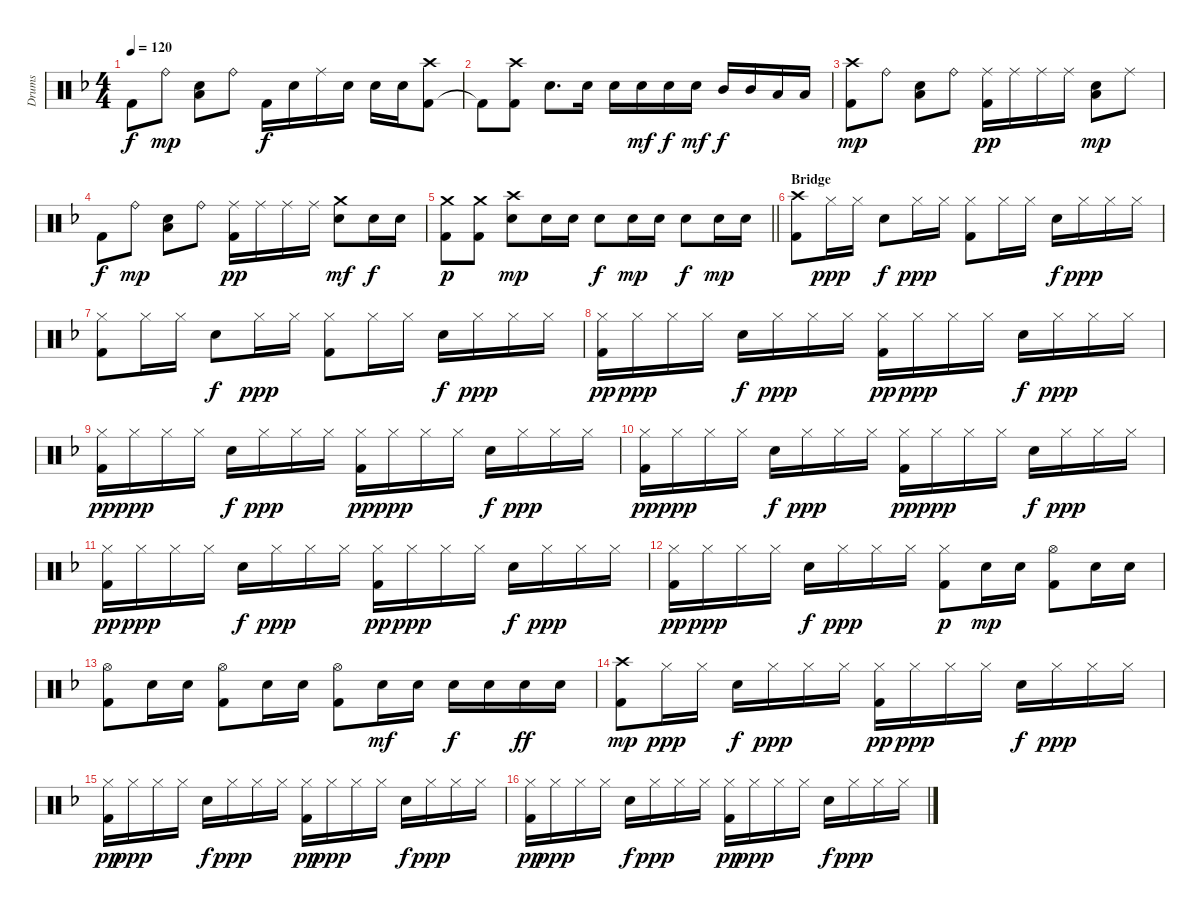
\track ("Drums" "Drums") {instrument percussion}
\staff {score}
\articulation defaults
\ts (4 4)
\tempo 120
\clef neutral
\ks dminor "Kick (hit) 2".8{dy f} "Ride (bell)".8{dy mp}
("Electric Snare (hit)" "Low Tom (hit)").8 "Ride (bell)".8 "Kick (hit) 2".16{dy f} "Electric Snare (hit)".16 "Ride (middle)".16 "Electric Snare (hit)".16 "Electric Snare (hit)".16 "Electric Snare (hit)".16 ("Kick (hit) 2" "Crash high (hit)").8 |
"Kick (hit) 2"{t}.8 ("Kick (hit) 2" "Crash high (hit)").8 "Electric Snare (hit)".8{d} "Electric Snare (hit)".16 "Electric Snare (hit)".16 "Electric Snare (hit)".16{dy mf} "Electric Snare (hit)".16{dy f} "Electric Snare (hit)".16{dy mf} "Mid Tom (hit)".16{dy f} "Mid Tom (hit)".16 "Low Tom (hit)".16 "Low Tom (hit)".16 |
("Kick (hit) 2" "Crash high (hit)").8{dy mp} "Ride (bell)".8 ("Electric Snare (hit)" "Low Tom (hit)").8 "Ride (bell)".8 ("Kick (hit) 2" "Ride (middle)").16{dy pp} "Ride (middle)".16 "Ride (middle)".16 "Ride (middle)".16 ("Electric Snare (hit)" "Low Tom (hit)").8{dy mp} "Ride (middle)".8 |
"Kick (hit) 2".8{dy f} "Ride (bell)".8{dy mp} ("Electric Snare (hit)" "Low Tom (hit)").8 "Ride (bell)".8 ("Kick (hit) 2" "Ride (middle)").16{dy pp} "Ride (middle)".16 "Ride (middle)".16 "Ride (middle)".16 ("Electric Snare (hit)" "Crash medium (hit)").8{dy mf} "Electric Snare (hit)".16{dy f} "Electric Snare (hit)".16 |
\barLineRight lightlight
("Kick (hit) 2" "Crash medium (hit)").8{dy p} ("Kick (hit) 2" "Crash medium (hit)").8 ("Electric Snare (hit)" "Crash high (hit)").8{dy mp} "Electric Snare (hit)".16 "Electric Snare (hit)".16 "Electric Snare (hit)".8{dy f} "Electric Snare (hit)".16{dy mp} "Electric Snare (hit)".16 "Electric Snare (hit)".8{dy f} "Electric Snare (hit)".16{dy mp} "Electric Snare (hit)".16 |
\section ("" "Bridge")
("Kick (hit) 2" "Crash high (hit)").8 "Hi-Hat (closed)".16{dy ppp} "Hi-Hat (closed)".16 "Electric Snare (hit)".8{dy f} "Hi-Hat (closed)".16{dy ppp} "Hi-Hat (closed)".16 ("Hi-Hat (closed)" "Kick (hit) 2").8 "Hi-Hat (closed)".16 "Hi-Hat (closed)".16 "Electric Snare (hit)".16{dy f} "Hi-Hat (closed)".16{dy ppp} "Hi-Hat (closed)".16 "Hi-Hat (closed)".16 |
("Hi-Hat (closed)" "Kick (hit) 2").8 "Hi-Hat (closed)".16 "Hi-Hat (closed)".16 "Electric Snare (hit)".8{dy f} "Hi-Hat (closed)".16{dy ppp} "Hi-Hat (closed)".16 ("Hi-Hat (closed)" "Kick (hit) 2").8 "Hi-Hat (closed)".16 "Hi-Hat (closed)".16 "Electric Snare (hit)".16{dy f} "Hi-Hat (closed)".16{dy ppp} "Hi-Hat (closed)".16 "Hi-Hat (closed)".16 |
("Hi-Hat (closed)" "Kick (hit) 2").16{dy pp} "Hi-Hat (closed)".16{dy ppp} "Hi-Hat (closed)".16 "Hi-Hat (closed)".16 "Electric Snare (hit)".16{dy f} "Hi-Hat (closed)".16{dy ppp} "Hi-Hat (closed)".16 "Hi-Hat (closed)".16 ("Hi-Hat (closed)" "Kick (hit) 2").16{dy pp} "Hi-Hat (closed)".16{dy ppp} "Hi-Hat (closed)".16 "Hi-Hat (closed)".16 "Electric Snare (hit)".16{dy f} "Hi-Hat (closed)".16{dy ppp} "Hi-Hat (closed)".16 "Hi-Hat (closed)".16 |
("Hi-Hat (closed)" "Kick (hit) 2").16{dy pp} "Hi-Hat (closed)".16{dy ppp} "Hi-Hat (closed)".16 "Hi-Hat (closed)".16 "Electric Snare (hit)".16{dy f} "Hi-Hat (closed)".16{dy ppp} "Hi-Hat (closed)".16 "Hi-Hat (closed)".16 ("Hi-Hat (closed)" "Kick (hit) 2").16{dy pp} "Hi-Hat (closed)".16{dy ppp} "Hi-Hat (closed)".16 "Hi-Hat (closed)".16 "Electric Snare (hit)".16{dy f} "Hi-Hat (closed)".16{dy ppp} "Hi-Hat (closed)".16 "Hi-Hat (closed)".16 |
("Hi-Hat (closed)" "Kick (hit) 2").16{dy pp} "Hi-Hat (closed)".16{dy ppp} "Hi-Hat (closed)".16 "Hi-Hat (closed)".16 "Electric Snare (hit)".16{dy f} "Hi-Hat (closed)".16{dy ppp} "Hi-Hat (closed)".16 "Hi-Hat (closed)".16 ("Hi-Hat (closed)" "Kick (hit) 2").16{dy pp} "Hi-Hat (closed)".16{dy ppp} "Hi-Hat (closed)".16 "Hi-Hat (closed)".16 "Electric Snare (hit)".16{dy f} "Hi-Hat (closed)".16{dy ppp} "Hi-Hat (closed)".16 "Hi-Hat (closed)".16 |
("Hi-Hat (closed)" "Kick (hit) 2").16{dy pp} "Hi-Hat (closed)".16{dy ppp} "Hi-Hat (closed)".16 "Hi-Hat (closed)".16 "Electric Snare (hit)".16{dy f} "Hi-Hat (closed)".16{dy ppp} "Hi-Hat (closed)".16 "Hi-Hat (closed)".16 ("Hi-Hat (closed)" "Kick (hit) 2").16{dy pp} "Hi-Hat (closed)".16{dy ppp} "Hi-Hat (closed)".16 "Hi-Hat (closed)".16 "Electric Snare (hit)".16{dy f} "Hi-Hat (closed)".16{dy ppp} "Hi-Hat (closed)".16 "Hi-Hat (closed)".16 |
("Hi-Hat (closed)" "Kick (hit) 2").16{dy pp} "Hi-Hat (closed)".16{dy ppp} "Hi-Hat (closed)".16 "Hi-Hat (closed)".16 "Electric Snare (hit)".16{dy f} "Hi-Hat (closed)".16{dy ppp} "Hi-Hat (closed)".16 "Hi-Hat (closed)".16 ("Hi-Hat (closed)" "Kick (hit) 2").8{dy p} "Electric Snare (hit)".16{dy mp} "Electric Snare (hit)".16 ("Kick (hit) 2" "Hi-Hat (open)").8 "Electric Snare (hit)".16 "Electric Snare (hit)".16 |
("Kick (hit) 2" "Hi-Hat (open)").8 "Electric Snare (hit)".16 "Electric Snare (hit)".16 ("Kick (hit) 2" "Hi-Hat (open)").8 "Electric Snare (hit)".16 "Electric Snare (hit)".16 ("Kick (hit) 2" "Hi-Hat (open)").8 "Electric Snare (hit)".16{dy mf} "Electric Snare (hit)".16 "Electric Snare (hit)".16{dy f} "Electric Snare (hit)".16 "Electric Snare (hit)".16{dy ff} "Electric Snare (hit)".16 |
("Kick (hit) 2" "Crash high (hit)").8{dy mp} "Hi-Hat (closed)".16{dy ppp} "Hi-Hat (closed)".16 "Electric Snare (hit)".16{dy f} "Hi-Hat (closed)".16{dy ppp} "Hi-Hat (closed)".16 "Hi-Hat (closed)".16 ("Hi-Hat (closed)" "Kick (hit) 2").16{dy pp} "Hi-Hat (closed)".16{dy ppp} "Hi-Hat (closed)".16 "Hi-Hat (closed)".16 "Electric Snare (hit)".16{dy f} "Hi-Hat (closed)".16{dy ppp} "Hi-Hat (closed)".16 "Hi-Hat (closed)".16 |
("Hi-Hat (closed)" "Kick (hit) 2").16{dy pp} "Hi-Hat (closed)".16{dy ppp} "Hi-Hat (closed)".16 "Hi-Hat (closed)".16 "Electric Snare (hit)".16{dy f} "Hi-Hat (closed)".16{dy ppp} "Hi-Hat (closed)".16 "Hi-Hat (closed)".16 ("Hi-Hat (closed)" "Kick (hit) 2").16{dy pp} "Hi-Hat (closed)".16{dy ppp} "Hi-Hat (closed)".16 "Hi-Hat (closed)".16 "Electric Snare (hit)".16{dy f} "Hi-Hat (closed)".16{dy ppp} "Hi-Hat (closed)".16 "Hi-Hat (closed)".16 |
("Hi-Hat (closed)" "Kick (hit) 2").16{dy pp} "Hi-Hat (closed)".16{dy ppp} "Hi-Hat (closed)".16 "Hi-Hat (closed)".16 "Electric Snare (hit)".16{dy f} "Hi-Hat (closed)".16{dy ppp} "Hi-Hat (closed)".16 "Hi-Hat (closed)".16 ("Hi-Hat (closed)" "Kick (hit) 2").16{dy pp} "Hi-Hat (closed)".16{dy ppp} "Hi-Hat (closed)".16 "Hi-Hat (closed)".16 "Electric Snare (hit)".16{dy f} "Hi-Hat (closed)".16{dy ppp} "Hi-Hat (closed)".16 "Hi-Hat (closed)".16
